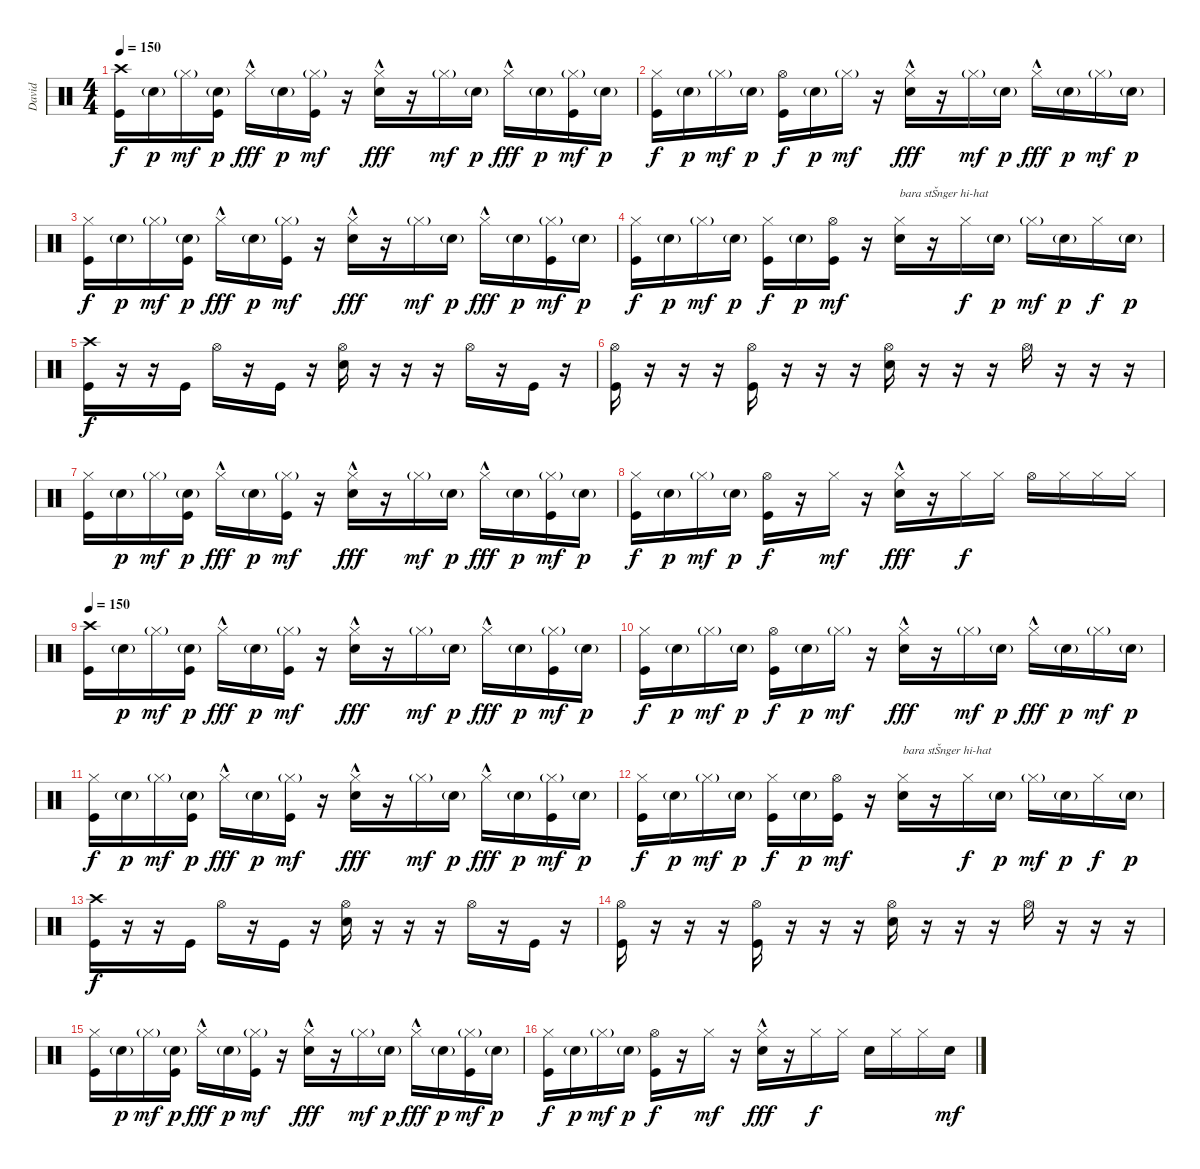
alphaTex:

\track ("David" "David") {instrument percussion}
\staff {score}
\articulation defaults
\ts (4 4)
\tempo 150
\clef neutral
\ks c
("Crash high (hit)" "Kick (hit)").16{dy f} "Electric Snare (hit)"{g}.16{dy p} "Hi-Hat (closed)"{g}.16{dy mf} ("Electric Snare (hit)"{g} "Kick (hit)").16{dy p} "Hi-Hat (closed)"{hac}.16{dy fff} "Electric Snare (hit)"{g}.16{dy p} ("Hi-Hat (closed)"{g} "Kick (hit)").16{dy mf} r.16 ("Hi-Hat (closed)"{hac} "Electric Snare (hit)").16{dy fff} r.16 "Hi-Hat (closed)"{g}.16{dy mf} "Electric Snare (hit)"{g}.16{dy p} "Hi-Hat (closed)"{hac}.16{dy fff} "Electric Snare (hit)"{g}.16{dy p} ("Hi-Hat (closed)"{g} "Kick (hit)").16{dy mf} "Electric Snare (hit)"{g}.16{dy p} |
("Hi-Hat (closed)" "Kick (hit)").16{dy f} "Electric Snare (hit)"{g}.16{dy p} "Hi-Hat (closed)"{g}.16{dy mf} "Electric Snare (hit)"{g}.16{dy p} ("Hi-Hat (open)" "Kick (hit)").16{dy f} "Electric Snare (hit)"{g}.16{dy p} "Hi-Hat (closed)"{g}.16{dy mf} r.16 ("Hi-Hat (closed)"{hac} "Electric Snare (hit)").16{dy fff} r.16 "Hi-Hat (closed)"{g}.16{dy mf} "Electric Snare (hit)"{g}.16{dy p} "Hi-Hat (closed)"{hac}.16{dy fff} "Electric Snare (hit)"{g}.16{dy p} "Hi-Hat (closed)"{g}.16{dy mf} "Electric Snare (hit)"{g}.16{dy p} |
("Hi-Hat (closed)" "Kick (hit)").16{dy f} "Electric Snare (hit)"{g}.16{dy p} "Hi-Hat (closed)"{g}.16{dy mf} ("Electric Snare (hit)"{g} "Kick (hit)").16{dy p} "Hi-Hat (closed)"{hac}.16{dy fff} "Electric Snare (hit)"{g}.16{dy p} ("Hi-Hat (closed)"{g} "Kick (hit)").16{dy mf} r.16 ("Hi-Hat (closed)"{hac} "Electric Snare (hit)").16{dy fff} r.16 "Hi-Hat (closed)"{g}.16{dy mf} "Electric Snare (hit)"{g}.16{dy p} "Hi-Hat (closed)"{hac}.16{dy fff} "Electric Snare (hit)"{g}.16{dy p} ("Hi-Hat (closed)"{g} "Kick (hit)").16{dy mf} "Electric Snare (hit)"{g}.16{dy p} |
("Hi-Hat (closed)" "Kick (hit)").16{dy f} "Electric Snare (hit)"{g}.16{dy p} "Hi-Hat (closed)"{g}.16{dy mf} "Electric Snare (hit)"{g}.16{dy p} ("Hi-Hat (closed)" "Kick (hit)").16{dy f} "Electric Snare (hit)"{g}.16{dy p} ("Hi-Hat (open)" "Kick (hit)").16{dy mf} r.16 ("Hi-Hat (closed)" "Electric Snare (hit)").16{txt "bara stŠnger hi-hat"} r.16 "Hi-Hat (closed)".16{dy f} "Electric Snare (hit)"{g}.16{dy p} "Hi-Hat (closed)"{g}.16{dy mf} "Electric Snare (hit)"{g}.16{dy p} "Hi-Hat (closed)".16{dy f} "Electric Snare (hit)"{g}.16{dy p} |
("Crash high (hit)" "Kick (hit)").16{dy f} r.16 r.16 "Kick (hit)".16 "Hi-Hat (open)".16 r.16 "Kick (hit)".16 r.16 ("Hi-Hat (open)" "Electric Snare (hit)").16 r.16 r.16 r.16 "Hi-Hat (open)".16 r.16 "Kick (hit)".16 r.16 |
("Hi-Hat (open)" "Kick (hit)").16 r.16 r.16 r.16 ("Hi-Hat (open)" "Kick (hit)").16 r.16 r.16 r.16 ("Hi-Hat (open)" "Electric Snare (hit)").16 r.16 r.16 r.16 "Hi-Hat (open)".16 r.16 r.16 r.16 |
("Hi-Hat (closed)" "Kick (hit)").16 "Electric Snare (hit)"{g}.16{dy p} "Hi-Hat (closed)"{g}.16{dy mf} ("Electric Snare (hit)"{g} "Kick (hit)").16{dy p} "Hi-Hat (closed)"{hac}.16{dy fff} "Electric Snare (hit)"{g}.16{dy p} ("Hi-Hat (closed)"{g} "Kick (hit)").16{dy mf} r.16 ("Hi-Hat (closed)"{hac} "Electric Snare (hit)").16{dy fff} r.16 "Hi-Hat (closed)"{g}.16{dy mf} "Electric Snare (hit)"{g}.16{dy p} "Hi-Hat (closed)"{hac}.16{dy fff} "Electric Snare (hit)"{g}.16{dy p} ("Hi-Hat (closed)"{g} "Kick (hit)").16{dy mf} "Electric Snare (hit)"{g}.16{dy p} |
("Hi-Hat (closed)" "Kick (hit)").16{dy f} "Electric Snare (hit)"{g}.16{dy p} "Hi-Hat (closed)"{g}.16{dy mf} "Electric Snare (hit)"{g}.16{dy p} ("Hi-Hat (open)" "Kick (hit)").16{dy f} r.16 "Hi-Hat (closed)".16{dy mf} r.16 ("Hi-Hat (closed)"{hac} "Electric Snare (hit)").16{dy fff} r.16 "Hi-Hat (closed)".16{dy f} "Hi-Hat (closed)".16 "Hi-Hat (open)".16 "Hi-Hat (closed)".16 "Hi-Hat (closed)".16 "Hi-Hat (closed)".16 |
\tempo 150
("Crash high (hit)" "Kick (hit)").16 "Electric Snare (hit)"{g}.16{dy p} "Hi-Hat (closed)"{g}.16{dy mf} ("Electric Snare (hit)"{g} "Kick (hit)").16{dy p} "Hi-Hat (closed)"{hac}.16{dy fff} "Electric Snare (hit)"{g}.16{dy p} ("Hi-Hat (closed)"{g} "Kick (hit)").16{dy mf} r.16 ("Hi-Hat (closed)"{hac} "Electric Snare (hit)").16{dy fff} r.16 "Hi-Hat (closed)"{g}.16{dy mf} "Electric Snare (hit)"{g}.16{dy p} "Hi-Hat (closed)"{hac}.16{dy fff} "Electric Snare (hit)"{g}.16{dy p} ("Hi-Hat (closed)"{g} "Kick (hit)").16{dy mf} "Electric Snare (hit)"{g}.16{dy p} |
("Hi-Hat (closed)" "Kick (hit)").16{dy f} "Electric Snare (hit)"{g}.16{dy p} "Hi-Hat (closed)"{g}.16{dy mf} "Electric Snare (hit)"{g}.16{dy p} ("Hi-Hat (open)" "Kick (hit)").16{dy f} "Electric Snare (hit)"{g}.16{dy p} "Hi-Hat (closed)"{g}.16{dy mf} r.16 ("Hi-Hat (closed)"{hac} "Electric Snare (hit)").16{dy fff} r.16 "Hi-Hat (closed)"{g}.16{dy mf} "Electric Snare (hit)"{g}.16{dy p} "Hi-Hat (closed)"{hac}.16{dy fff} "Electric Snare (hit)"{g}.16{dy p} "Hi-Hat (closed)"{g}.16{dy mf} "Electric Snare (hit)"{g}.16{dy p} |
("Hi-Hat (closed)" "Kick (hit)").16{dy f} "Electric Snare (hit)"{g}.16{dy p} "Hi-Hat (closed)"{g}.16{dy mf} ("Electric Snare (hit)"{g} "Kick (hit)").16{dy p} "Hi-Hat (closed)"{hac}.16{dy fff} "Electric Snare (hit)"{g}.16{dy p} ("Hi-Hat (closed)"{g} "Kick (hit)").16{dy mf} r.16 ("Hi-Hat (closed)"{hac} "Electric Snare (hit)").16{dy fff} r.16 "Hi-Hat (closed)"{g}.16{dy mf} "Electric Snare (hit)"{g}.16{dy p} "Hi-Hat (closed)"{hac}.16{dy fff} "Electric Snare (hit)"{g}.16{dy p} ("Hi-Hat (closed)"{g} "Kick (hit)").16{dy mf} "Electric Snare (hit)"{g}.16{dy p} |
("Hi-Hat (closed)" "Kick (hit)").16{dy f} "Electric Snare (hit)"{g}.16{dy p} "Hi-Hat (closed)"{g}.16{dy mf} "Electric Snare (hit)"{g}.16{dy p} ("Hi-Hat (closed)" "Kick (hit)").16{dy f} "Electric Snare (hit)"{g}.16{dy p} ("Hi-Hat (open)" "Kick (hit)").16{dy mf} r.16 ("Hi-Hat (closed)" "Electric Snare (hit)").16{txt "bara stŠnger hi-hat"} r.16 "Hi-Hat (closed)".16{dy f} "Electric Snare (hit)"{g}.16{dy p} "Hi-Hat (closed)"{g}.16{dy mf} "Electric Snare (hit)"{g}.16{dy p} "Hi-Hat (closed)".16{dy f} "Electric Snare (hit)"{g}.16{dy p} |
("Crash high (hit)" "Kick (hit)").16{dy f} r.16 r.16 "Kick (hit)".16 "Hi-Hat (open)".16 r.16 "Kick (hit)".16 r.16 ("Hi-Hat (open)" "Electric Snare (hit)").16 r.16 r.16 r.16 "Hi-Hat (open)".16 r.16 "Kick (hit)".16 r.16 |
("Hi-Hat (open)" "Kick (hit)").16 r.16 r.16 r.16 ("Hi-Hat (open)" "Kick (hit)").16 r.16 r.16 r.16 ("Hi-Hat (open)" "Electric Snare (hit)").16 r.16 r.16 r.16 "Hi-Hat (open)".16 r.16 r.16 r.16 |
("Hi-Hat (closed)" "Kick (hit)").16 "Electric Snare (hit)"{g}.16{dy p} "Hi-Hat (closed)"{g}.16{dy mf} ("Electric Snare (hit)"{g} "Kick (hit)").16{dy p} "Hi-Hat (closed)"{hac}.16{dy fff} "Electric Snare (hit)"{g}.16{dy p} ("Hi-Hat (closed)"{g} "Kick (hit)").16{dy mf} r.16 ("Hi-Hat (closed)"{hac} "Electric Snare (hit)").16{dy fff} r.16 "Hi-Hat (closed)"{g}.16{dy mf} "Electric Snare (hit)"{g}.16{dy p} "Hi-Hat (closed)"{hac}.16{dy fff} "Electric Snare (hit)"{g}.16{dy p} ("Hi-Hat (closed)"{g} "Kick (hit)").16{dy mf} "Electric Snare (hit)"{g}.16{dy p} |
("Hi-Hat (closed)" "Kick (hit)").16{dy f} "Electric Snare (hit)"{g}.16{dy p} "Hi-Hat (closed)"{g}.16{dy mf} "Electric Snare (hit)"{g}.16{dy p} ("Hi-Hat (open)" "Kick (hit)").16{dy f} r.16 "Hi-Hat (closed)".16{dy mf} r.16 ("Hi-Hat (closed)"{hac} "Electric Snare (hit)").16{dy fff} r.16 "Hi-Hat (closed)".16{dy f} "Hi-Hat (closed)".16 "Electric Snare (hit)".16 "Hi-Hat (closed)".16 "Hi-Hat (closed)".16 "Electric Snare (hit)".16{dy mf}
